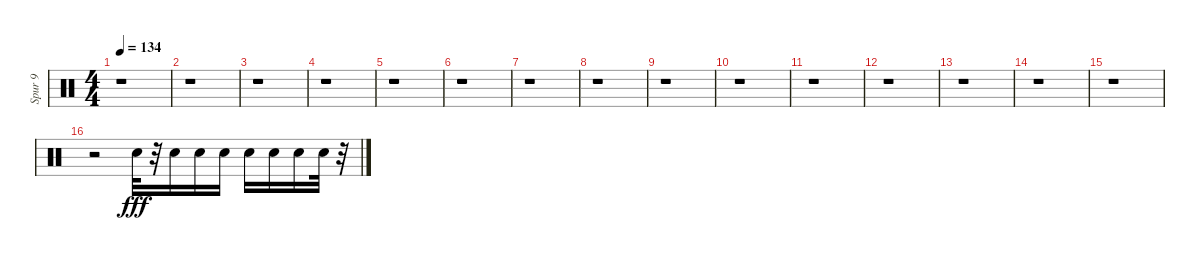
\track ("Spur 9" "Spur 9") {instrument percussion}
\staff {score}
\articulation defaults
\ts (4 4)
\tempo 134
\clef neutral
\ks c
r.1{dy fff} |
r.1 |
r.1 |
r.1 |
r.1 |
r.1 |
r.1 |
r.1 |
r.1 |
r.1 |
r.1 |
r.1 |
r.1 |
r.1 |
r.1 |
r.2 "Electric Snare (hit)".32 r.32 "Electric Snare (hit)".16 "Electric Snare (hit)".16 "Electric Snare (hit)".16 "Electric Snare (hit)".16 "Electric Snare (hit)".16 "Electric Snare (hit)".16 "Electric Snare (hit)".32 r.32
